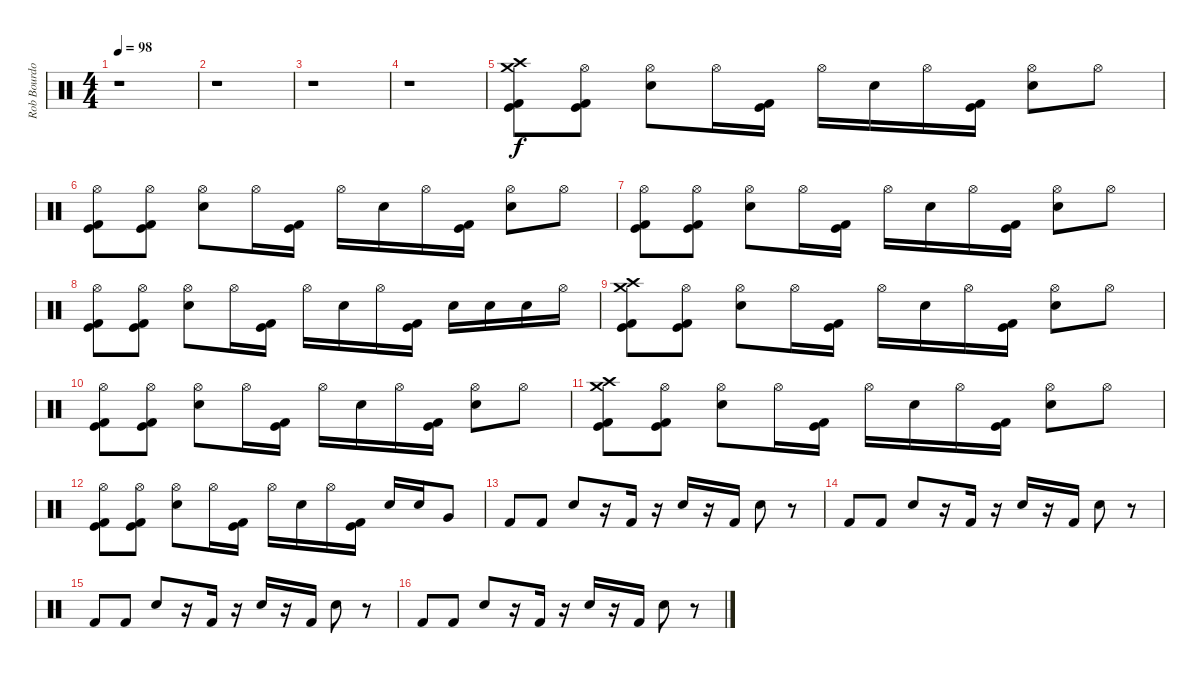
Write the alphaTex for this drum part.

\track ("Rob Bourdon (Drums)" "Rob Bourdo") {instrument percussion}
\staff {score}
\articulation defaults
\ts (4 4)
\tempo 98
\clef neutral
\ks c
r.1{dy f} |
r.1 |
r.1 |
r.1 |
("Crash medium (hit)" "Crash high (hit)" "Kick (hit)" "Kick (hit) 2").8 ("Hi-Hat (open)" "Kick (hit)" "Kick (hit) 2").8 ("Hi-Hat (open)" "Electric Snare (hit)").8 "Hi-Hat (open)".16 ("Kick (hit)" "Kick (hit) 2").16 "Hi-Hat (open)".16 "Electric Snare (hit)".16 "Hi-Hat (open)".16 ("Kick (hit)" "Kick (hit) 2").16 ("Hi-Hat (open)" "Electric Snare (hit)").8 "Hi-Hat (open)".8 |
("Hi-Hat (open)" "Kick (hit)" "Kick (hit) 2").8 ("Hi-Hat (open)" "Kick (hit)" "Kick (hit) 2").8 ("Hi-Hat (open)" "Electric Snare (hit)").8 "Hi-Hat (open)".16 ("Kick (hit)" "Kick (hit) 2").16 "Hi-Hat (open)".16 "Electric Snare (hit)".16 "Hi-Hat (open)".16 ("Kick (hit)" "Kick (hit) 2").16 ("Hi-Hat (open)" "Electric Snare (hit)").8 "Hi-Hat (open)".8 |
("Hi-Hat (open)" "Kick (hit)" "Kick (hit) 2").8 ("Hi-Hat (open)" "Kick (hit)" "Kick (hit) 2").8 ("Hi-Hat (open)" "Electric Snare (hit)").8 "Hi-Hat (open)".16 ("Kick (hit)" "Kick (hit) 2").16 "Hi-Hat (open)".16 "Electric Snare (hit)".16 "Hi-Hat (open)".16 ("Kick (hit)" "Kick (hit) 2").16 ("Hi-Hat (open)" "Electric Snare (hit)").8 "Hi-Hat (open)".8 |
("Hi-Hat (open)" "Kick (hit)" "Kick (hit) 2").8 ("Hi-Hat (open)" "Kick (hit)" "Kick (hit) 2").8 ("Hi-Hat (open)" "Electric Snare (hit)").8 "Hi-Hat (open)".16 ("Kick (hit)" "Kick (hit) 2").16 "Hi-Hat (open)".16 "Electric Snare (hit)".16 "Hi-Hat (open)".16 ("Kick (hit)" "Kick (hit) 2").16 "Electric Snare (hit)".16 "Electric Snare (hit)".16 "Electric Snare (hit)".16 "Hi-Hat (open)".16 |
("Crash medium (hit)" "Crash high (hit)" "Kick (hit)" "Kick (hit) 2").8 ("Hi-Hat (open)" "Kick (hit)" "Kick (hit) 2").8 ("Hi-Hat (open)" "Electric Snare (hit)").8 "Hi-Hat (open)".16 ("Kick (hit)" "Kick (hit) 2").16 "Hi-Hat (open)".16 "Electric Snare (hit)".16 "Hi-Hat (open)".16 ("Kick (hit)" "Kick (hit) 2").16 ("Hi-Hat (open)" "Electric Snare (hit)").8 "Hi-Hat (open)".8 |
("Hi-Hat (open)" "Kick (hit)" "Kick (hit) 2").8 ("Hi-Hat (open)" "Kick (hit)" "Kick (hit) 2").8 ("Hi-Hat (open)" "Electric Snare (hit)").8 "Hi-Hat (open)".16 ("Kick (hit)" "Kick (hit) 2").16 "Hi-Hat (open)".16 "Electric Snare (hit)".16 "Hi-Hat (open)".16 ("Kick (hit)" "Kick (hit) 2").16 ("Hi-Hat (open)" "Electric Snare (hit)").8 "Hi-Hat (open)".8 |
("Crash medium (hit)" "Crash high (hit)" "Kick (hit)" "Kick (hit) 2").8 ("Hi-Hat (open)" "Kick (hit)" "Kick (hit) 2").8 ("Hi-Hat (open)" "Electric Snare (hit)").8 "Hi-Hat (open)".16 ("Kick (hit)" "Kick (hit) 2").16 "Hi-Hat (open)".16 "Electric Snare (hit)".16 "Hi-Hat (open)".16 ("Kick (hit)" "Kick (hit) 2").16 ("Hi-Hat (open)" "Electric Snare (hit)").8 "Hi-Hat (open)".8 |
("Hi-Hat (open)" "Kick (hit)" "Kick (hit) 2").8 ("Hi-Hat (open)" "Kick (hit)" "Kick (hit) 2").8 ("Hi-Hat (open)" "Electric Snare (hit)").8 "Hi-Hat (open)".16 ("Kick (hit)" "Kick (hit) 2").16 "Hi-Hat (open)".16 "Electric Snare (hit)".16 "Hi-Hat (open)".16 ("Kick (hit)" "Kick (hit) 2").16 "Electric Snare (hit)".16 "Electric Snare (hit)".16 "Very Low Tom (hit)".8 |
"Kick (hit) 2".8 "Kick (hit) 2".8 "Electric Snare (hit)".8 r.16 "Kick (hit) 2".16 r.16 "Electric Snare (hit)".16 r.16 "Kick (hit) 2".16 "Electric Snare (hit)".8 r.8 |
"Kick (hit) 2".8 "Kick (hit) 2".8 "Electric Snare (hit)".8 r.16 "Kick (hit) 2".16 r.16 "Electric Snare (hit)".16 r.16 "Kick (hit) 2".16 "Electric Snare (hit)".8 r.8 |
"Kick (hit) 2".8 "Kick (hit) 2".8 "Electric Snare (hit)".8 r.16 "Kick (hit) 2".16 r.16 "Electric Snare (hit)".16 r.16 "Kick (hit) 2".16 "Electric Snare (hit)".8 r.8 |
"Kick (hit) 2".8 "Kick (hit) 2".8 "Electric Snare (hit)".8 r.16 "Kick (hit) 2".16 r.16 "Electric Snare (hit)".16 r.16 "Kick (hit) 2".16 "Electric Snare (hit)".8 r.8
